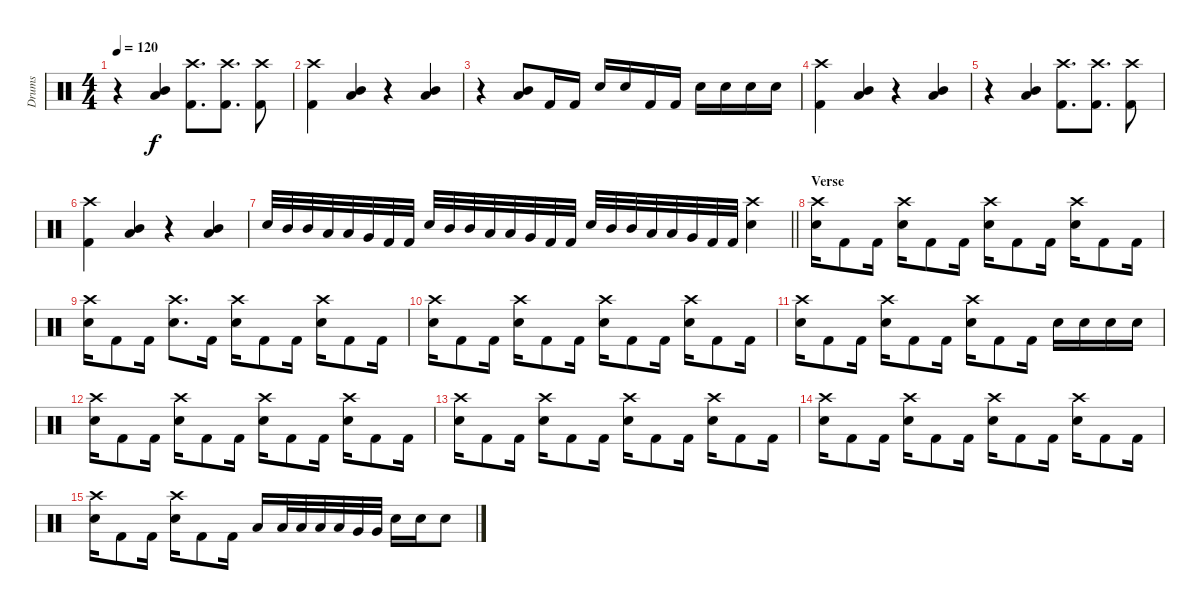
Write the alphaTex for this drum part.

\track ("Drums" "Drums") {instrument percussion}
\staff {score}
\articulation defaults
\ts (4 4)
\tempo 120
\clef neutral
\ks c
r.4{dy f} ("Mid Tom (hit)" "Low Tom (hit)").4 ("Crash high (hit)" "Kick (hit) 2").8{d} ("Crash high (hit)" "Kick (hit) 2").8{d} ("Crash high (hit)" "Kick (hit) 2").8 |
("Crash high (hit)" "Kick (hit) 2").4 ("Mid Tom (hit)" "Low Tom (hit)").4 r.4 ("Mid Tom (hit)" "Low Tom (hit)").4 |
r.4 ("Mid Tom (hit)" "Low Tom (hit)").8 "Kick (hit) 2".16 "Kick (hit) 2".16 "Electric Snare (hit)".16 "Electric Snare (hit)".16 "Kick (hit) 2".16 "Kick (hit) 2".16 "Electric Snare (hit)".16 "Electric Snare (hit)".16 "Electric Snare (hit)".16 "Electric Snare (hit)".16 |
("Crash high (hit)" "Kick (hit) 2").4 ("Mid Tom (hit)" "Low Tom (hit)").4 r.4 ("Mid Tom (hit)" "Low Tom (hit)").4 |
r.4 ("Mid Tom (hit)" "Low Tom (hit)").4 ("Crash high (hit)" "Kick (hit) 2").8{d} ("Crash high (hit)" "Kick (hit) 2").8{d} ("Crash high (hit)" "Kick (hit) 2").8 |
("Crash high (hit)" "Kick (hit) 2").4 ("Mid Tom (hit)" "Low Tom (hit)").4 r.4 ("Mid Tom (hit)" "Low Tom (hit)").4 |
\barLineRight lightlight "Electric Snare (hit)".32 "Mid Tom (hit)".32 "Mid Tom (hit)".32 "Low Tom (hit)".32 "Low Tom (hit)".32 "Very Low Tom (hit)".32 "Kick (hit) 2".32 "Kick (hit) 2".32 "Electric Snare (hit)".32 "Mid Tom (hit)".32 "Mid Tom (hit)".32 "Low Tom (hit)".32 "Low Tom (hit)".32 "Very Low Tom (hit)".32 "Kick (hit) 2".32 "Kick (hit) 2".32 "Electric Snare (hit)".32 "Mid Tom (hit)".32 "Mid Tom (hit)".32 "Low Tom (hit)".32 "Low Tom (hit)".32 "Very Low Tom (hit)".32 "Kick (hit) 2".32 "Kick (hit) 2".32
("Crash high (hit)" "Electric Snare (hit)").4 |
\section ("" "Verse")
("Crash high (hit)" "Electric Snare (hit)").16 "Kick (hit) 2".8 "Kick (hit) 2".16 ("Crash high (hit)" "Electric Snare (hit)").16 "Kick (hit) 2".8 "Kick (hit) 2".16 ("Crash high (hit)" "Electric Snare (hit)").16 "Kick (hit) 2".8 "Kick (hit) 2".16 ("Crash high (hit)" "Electric Snare (hit)").16 "Kick (hit) 2".8 "Kick (hit) 2".16 |
("Crash high (hit)" "Electric Snare (hit)").16 "Kick (hit) 2".8 "Kick (hit) 2".16 ("Crash high (hit)" "Electric Snare (hit)").8{d} "Kick (hit) 2".16 ("Crash high (hit)" "Electric Snare (hit)").16 "Kick (hit) 2".8 "Kick (hit) 2".16 ("Crash high (hit)" "Electric Snare (hit)").16 "Kick (hit) 2".8 "Kick (hit) 2".16 |
("Crash high (hit)" "Electric Snare (hit)").16 "Kick (hit) 2".8 "Kick (hit) 2".16 ("Crash high (hit)" "Electric Snare (hit)").16 "Kick (hit) 2".8 "Kick (hit) 2".16 ("Crash high (hit)" "Electric Snare (hit)").16 "Kick (hit) 2".8 "Kick (hit) 2".16 ("Crash high (hit)" "Electric Snare (hit)").16 "Kick (hit) 2".8 "Kick (hit) 2".16 |
("Crash high (hit)" "Electric Snare (hit)").16 "Kick (hit) 2".8 "Kick (hit) 2".16 ("Crash high (hit)" "Electric Snare (hit)").16 "Kick (hit) 2".8 "Kick (hit) 2".16 ("Crash high (hit)" "Electric Snare (hit)").16 "Kick (hit) 2".8 "Kick (hit) 2".16 "Electric Snare (hit)".16 "Electric Snare (hit)".16 "Electric Snare (hit)".16 "Electric Snare (hit)".16 |
("Crash high (hit)" "Electric Snare (hit)").16 "Kick (hit) 2".8 "Kick (hit) 2".16 ("Crash high (hit)" "Electric Snare (hit)").16 "Kick (hit) 2".8 "Kick (hit) 2".16 ("Crash high (hit)" "Electric Snare (hit)").16 "Kick (hit) 2".8 "Kick (hit) 2".16 ("Crash high (hit)" "Electric Snare (hit)").16 "Kick (hit) 2".8 "Kick (hit) 2".16 |
("Crash high (hit)" "Electric Snare (hit)").16 "Kick (hit) 2".8 "Kick (hit) 2".16 ("Crash high (hit)" "Electric Snare (hit)").16 "Kick (hit) 2".8 "Kick (hit) 2".16 ("Crash high (hit)" "Electric Snare (hit)").16 "Kick (hit) 2".8 "Kick (hit) 2".16 ("Crash high (hit)" "Electric Snare (hit)").16 "Kick (hit) 2".8 "Kick (hit) 2".16 |
("Crash high (hit)" "Electric Snare (hit)").16 "Kick (hit) 2".8 "Kick (hit) 2".16 ("Crash high (hit)" "Electric Snare (hit)").16 "Kick (hit) 2".8 "Kick (hit) 2".16 ("Crash high (hit)" "Electric Snare (hit)").16 "Kick (hit) 2".8 "Kick (hit) 2".16 ("Crash high (hit)" "Electric Snare (hit)").16 "Kick (hit) 2".8 "Kick (hit) 2".16 |
("Crash high (hit)" "Electric Snare (hit)").16 "Kick (hit) 2".8 "Kick (hit) 2".16 ("Crash high (hit)" "Electric Snare (hit)").16 "Kick (hit) 2".8 "Kick (hit) 2".16 "Low Tom (hit)".16 "Low Tom (hit)".32 "Low Tom (hit)".32 "Low Tom (hit)".32 "Low Tom (hit)".32 "Very Low Tom (hit)".32 "Very Low Tom (hit)".32 "Electric Snare (hit)".16 "Electric Snare (hit)".16 "Electric Snare (hit)".8
